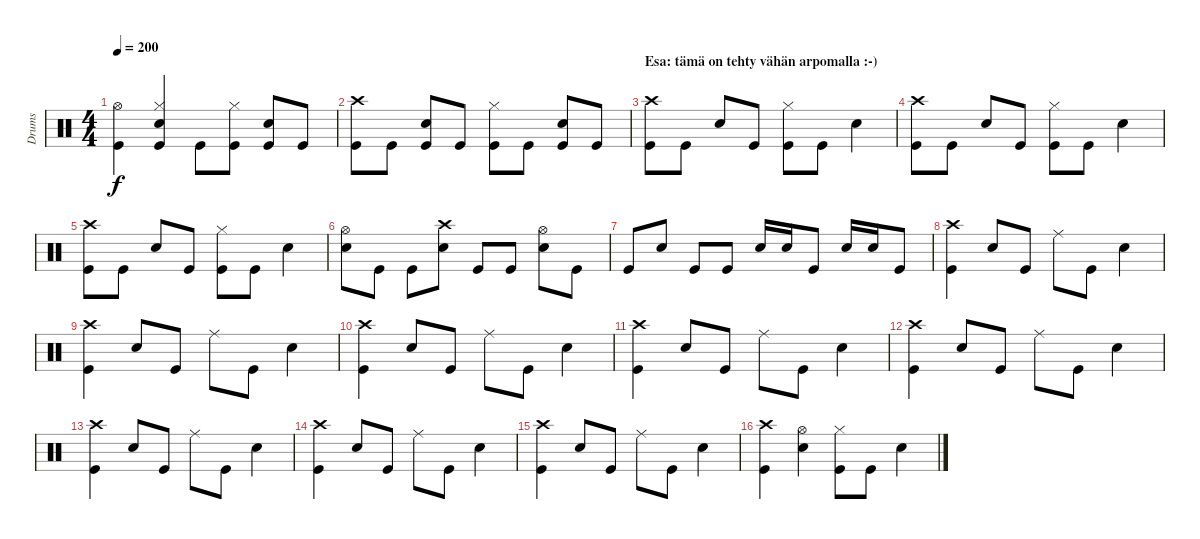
\track ("Drums" "Drums") {instrument percussion}
\staff {score}
\articulation defaults
\ts (4 4)
\tempo 200
\clef neutral
\ks c
("Hi-Hat (open)" "Kick (hit)").4{dy f} ("Hi-Hat (closed)" "Snare (hit) 2" "Kick (hit)").4 "Kick (hit)".8 ("Hi-Hat (closed)" "Kick (hit)").8 ("Snare (hit) 2" "Kick (hit)").8 "Kick (hit)".8 |
("Crash high (hit)" "Kick (hit)").8 "Kick (hit)".8 ("Snare (hit) 2" "Kick (hit)").8 "Kick (hit)".8 ("Hi-Hat (closed)" "Kick (hit)").8 "Kick (hit)".8 ("Snare (hit) 2" "Kick (hit)").8 "Kick (hit)".8 |
\section ("" "Esa: tämä on tehty vähän arpomalla :-)")
("Crash high (hit)" "Kick (hit)").8 "Kick (hit)".8 "Snare (hit) 2".8 "Kick (hit)".8 ("Hi-Hat (closed)" "Kick (hit)").8 "Kick (hit)".8 "Snare (hit) 2".4 |
("Crash high (hit)" "Kick (hit)").8 "Kick (hit)".8 "Snare (hit) 2".8 "Kick (hit)".8 ("Hi-Hat (closed)" "Kick (hit)").8 "Kick (hit)".8 "Snare (hit) 2".4 |
("Crash high (hit)" "Kick (hit)").8 "Kick (hit)".8 "Snare (hit) 2".8 "Kick (hit)".8 ("Hi-Hat (closed)" "Kick (hit)").8 "Kick (hit)".8 "Snare (hit) 2".4 |
("Hi-Hat (open)" "Snare (hit) 2").8 "Kick (hit)".8 "Kick (hit)".8 ("Crash high (hit)" "Snare (hit) 2").8 "Kick (hit)".8 "Kick (hit)".8 ("Hi-Hat (open)" "Snare (hit) 2").8 "Kick (hit)".8 |
"Kick (hit)".8 "Snare (hit) 2".8 "Kick (hit)".8 "Kick (hit)".8 "Snare (hit) 2".16 "Snare (hit) 2".16 "Kick (hit)".8 "Snare (hit) 2".16 "Snare (hit) 2".16 "Kick (hit)".8 |
("Crash high (hit)" "Kick (hit)").4 "Snare (hit) 2".8 "Kick (hit)".8 "Ride (middle)".8 "Kick (hit)".8 "Snare (hit) 2".4 |
("Crash high (hit)" "Kick (hit)").4 "Snare (hit) 2".8 "Kick (hit)".8 "Ride (middle)".8 "Kick (hit)".8 "Snare (hit) 2".4 |
("Crash high (hit)" "Kick (hit)").4 "Snare (hit) 2".8 "Kick (hit)".8 "Ride (middle)".8 "Kick (hit)".8 "Snare (hit) 2".4 |
("Crash high (hit)" "Kick (hit)").4 "Snare (hit) 2".8 "Kick (hit)".8 "Ride (middle)".8 "Kick (hit)".8 "Snare (hit) 2".4 |
("Crash high (hit)" "Kick (hit)").4 "Snare (hit) 2".8 "Kick (hit)".8 "Ride (middle)".8 "Kick (hit)".8 "Snare (hit) 2".4 |
("Crash high (hit)" "Kick (hit)").4 "Snare (hit) 2".8 "Kick (hit)".8 "Ride (middle)".8 "Kick (hit)".8 "Snare (hit) 2".4 |
("Crash high (hit)" "Kick (hit)").4 "Snare (hit) 2".8 "Kick (hit)".8 "Ride (middle)".8 "Kick (hit)".8 "Snare (hit) 2".4 |
("Crash high (hit)" "Kick (hit)").4 "Snare (hit) 2".8 "Kick (hit)".8 "Ride (middle)".8 "Kick (hit)".8 "Snare (hit) 2".4 |
("Crash high (hit)" "Kick (hit)").4 ("Hi-Hat (open)" "Snare (hit) 2").4 ("Hi-Hat (closed)" "Kick (hit)").8 "Kick (hit)".8 "Snare (hit) 2".4
